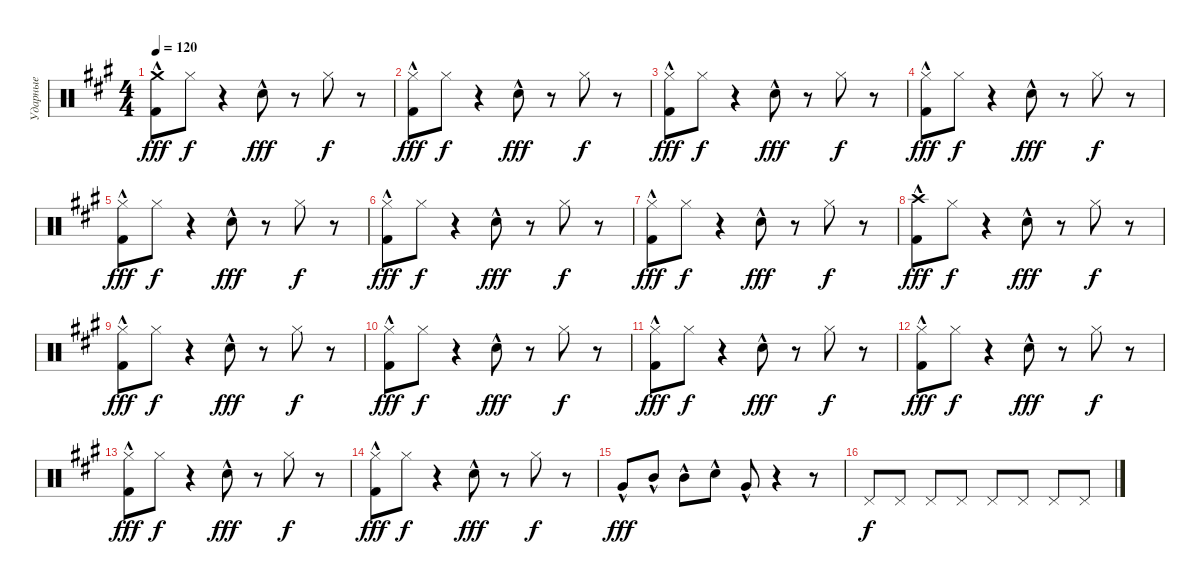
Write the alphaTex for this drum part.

\track ("Ударные" "Ударные") {instrument percussion}
\staff {score}
\articulation defaults
\ts (4 4)
\tempo 120
\clef neutral
\ks a
("Crash medium (hit)"{hac} "Kick (hit) 2"{hac}).8{dy fff} "Hi-Hat (closed)".8{dy f} r.4 "Snare (hit) 2"{hac}.8{dy fff} r.8 "Hi-Hat (closed)".8{dy f} r.8 |
("Hi-Hat (closed)"{hac} "Kick (hit) 2"{hac}).8{dy fff} "Hi-Hat (closed)".8{dy f} r.4 "Snare (hit) 2"{hac}.8{dy fff} r.8 "Hi-Hat (closed)".8{dy f} r.8 |
("Hi-Hat (closed)"{hac} "Kick (hit) 2"{hac}).8{dy fff} "Hi-Hat (closed)".8{dy f} r.4 "Snare (hit) 2"{hac}.8{dy fff} r.8 "Hi-Hat (closed)".8{dy f} r.8 |
("Hi-Hat (closed)"{hac} "Kick (hit) 2"{hac}).8{dy fff} "Hi-Hat (closed)".8{dy f} r.4 "Snare (hit) 2"{hac}.8{dy fff} r.8 "Hi-Hat (closed)".8{dy f} r.8 |
("Hi-Hat (closed)"{hac} "Kick (hit) 2"{hac}).8{dy fff} "Hi-Hat (closed)".8{dy f} r.4 "Snare (hit) 2"{hac}.8{dy fff} r.8 "Hi-Hat (closed)".8{dy f} r.8 |
("Hi-Hat (closed)"{hac} "Kick (hit) 2"{hac}).8{dy fff} "Hi-Hat (closed)".8{dy f} r.4 "Snare (hit) 2"{hac}.8{dy fff} r.8 "Hi-Hat (closed)".8{dy f} r.8 |
("Hi-Hat (closed)"{hac} "Kick (hit) 2"{hac}).8{dy fff} "Hi-Hat (closed)".8{dy f} r.4 "Snare (hit) 2"{hac}.8{dy fff} r.8 "Hi-Hat (closed)".8{dy f} r.8 |
("Crash high (hit)"{hac} "Kick (hit) 2"{hac}).8{dy fff} "Hi-Hat (closed)".8{dy f} r.4 "Snare (hit) 2"{hac}.8{dy fff} r.8 "Hi-Hat (closed)".8{dy f} r.8 |
("Hi-Hat (closed)"{hac} "Kick (hit) 2"{hac}).8{dy fff} "Hi-Hat (closed)".8{dy f} r.4 "Snare (hit) 2"{hac}.8{dy fff} r.8 "Hi-Hat (closed)".8{dy f} r.8 |
("Hi-Hat (closed)"{hac} "Kick (hit) 2"{hac}).8{dy fff} "Hi-Hat (closed)".8{dy f} r.4 "Snare (hit) 2"{hac}.8{dy fff} r.8 "Hi-Hat (closed)".8{dy f} r.8 |
("Hi-Hat (closed)"{hac} "Kick (hit) 2"{hac}).8{dy fff} "Hi-Hat (closed)".8{dy f} r.4 "Snare (hit) 2"{hac}.8{dy fff} r.8 "Hi-Hat (closed)".8{dy f} r.8 |
("Hi-Hat (closed)"{hac} "Kick (hit) 2"{hac}).8{dy fff} "Hi-Hat (closed)".8{dy f} r.4 "Snare (hit) 2"{hac}.8{dy fff} r.8 "Hi-Hat (closed)".8{dy f} r.8 |
("Hi-Hat (closed)"{hac} "Kick (hit) 2"{hac}).8{dy fff} "Hi-Hat (closed)".8{dy f} r.4 "Snare (hit) 2"{hac}.8{dy fff} r.8 "Hi-Hat (closed)".8{dy f} r.8 |
("Hi-Hat (closed)"{hac} "Kick (hit) 2"{hac}).8{dy fff} "Hi-Hat (closed)".8{dy f} r.4 "Snare (hit) 2"{hac}.8{dy fff} r.8 "Hi-Hat (closed)".8{dy f} r.8 |
"Very Low Tom (hit)"{hac}.8{dy fff} "Mid Tom (hit)"{hac}.8 "Mid Tom (hit)"{hac}.8 "Snare (hit) 2"{hac}.8 "Very Low Tom (hit)"{hac}.8 r.4 r.8 |
"Pedal Hi-Hat (hit)".8{dy f} "Pedal Hi-Hat (hit)".8 "Pedal Hi-Hat (hit)".8 "Pedal Hi-Hat (hit)".8 "Pedal Hi-Hat (hit)".8 "Pedal Hi-Hat (hit)".8 "Pedal Hi-Hat (hit)".8 "Pedal Hi-Hat (hit)".8
